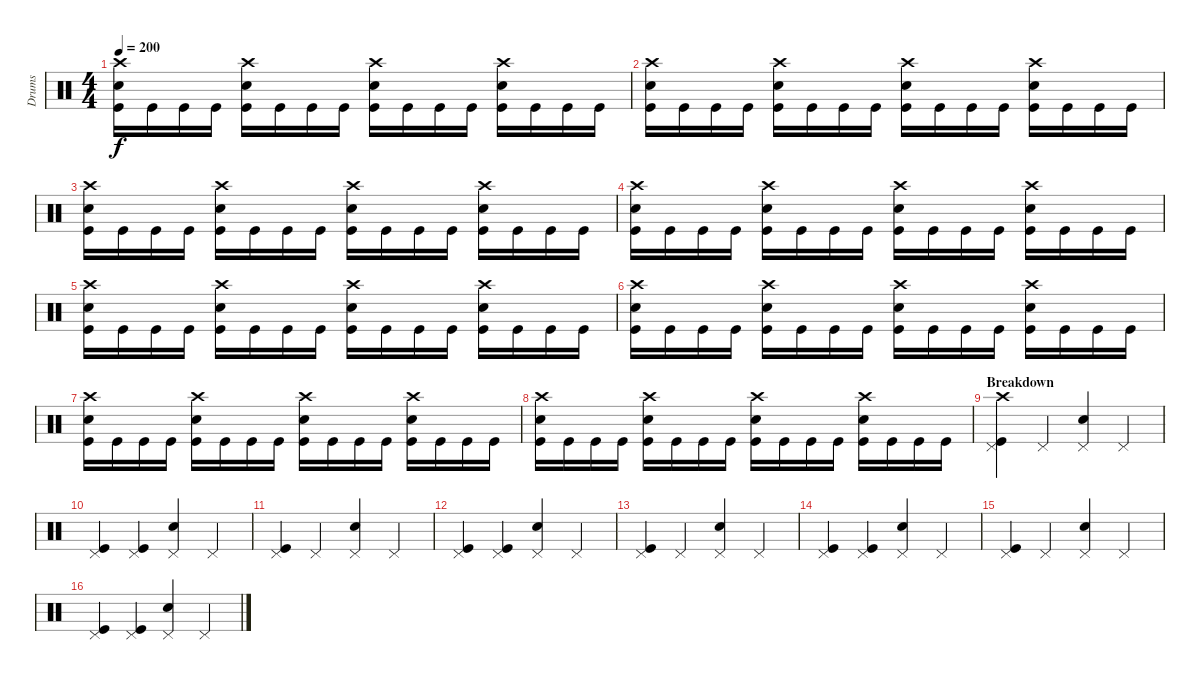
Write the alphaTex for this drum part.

\track ("Drums" "Drums") {instrument percussion}
\staff {score}
\articulation defaults
\ts (4 4)
\tempo 200
\clef neutral
\ks c
("Crash high (hit)" "Snare (hit) 2" "Kick (hit)").16{dy f} "Kick (hit)".16 "Kick (hit)".16 "Kick (hit)".16 ("Crash high (hit)" "Snare (hit) 2" "Kick (hit)").16 "Kick (hit)".16 "Kick (hit)".16 "Kick (hit)".16 ("Crash high (hit)" "Snare (hit) 2" "Kick (hit)").16 "Kick (hit)".16 "Kick (hit)".16 "Kick (hit)".16 ("Crash high (hit)" "Snare (hit) 2" "Kick (hit)").16 "Kick (hit)".16 "Kick (hit)".16 "Kick (hit)".16 |
("Crash high (hit)" "Snare (hit) 2" "Kick (hit)").16 "Kick (hit)".16 "Kick (hit)".16 "Kick (hit)".16 ("Crash high (hit)" "Snare (hit) 2" "Kick (hit)").16 "Kick (hit)".16 "Kick (hit)".16 "Kick (hit)".16 ("Crash high (hit)" "Snare (hit) 2" "Kick (hit)").16 "Kick (hit)".16 "Kick (hit)".16 "Kick (hit)".16 ("Crash high (hit)" "Snare (hit) 2" "Kick (hit)").16 "Kick (hit)".16 "Kick (hit)".16 "Kick (hit)".16 |
("Crash high (hit)" "Snare (hit) 2" "Kick (hit)").16 "Kick (hit)".16 "Kick (hit)".16 "Kick (hit)".16 ("Crash high (hit)" "Snare (hit) 2" "Kick (hit)").16 "Kick (hit)".16 "Kick (hit)".16 "Kick (hit)".16 ("Crash high (hit)" "Snare (hit) 2" "Kick (hit)").16 "Kick (hit)".16 "Kick (hit)".16 "Kick (hit)".16 ("Crash high (hit)" "Snare (hit) 2" "Kick (hit)").16 "Kick (hit)".16 "Kick (hit)".16 "Kick (hit)".16 |
("Crash high (hit)" "Snare (hit) 2" "Kick (hit)").16 "Kick (hit)".16 "Kick (hit)".16 "Kick (hit)".16 ("Crash high (hit)" "Snare (hit) 2" "Kick (hit)").16 "Kick (hit)".16 "Kick (hit)".16 "Kick (hit)".16 ("Crash high (hit)" "Snare (hit) 2" "Kick (hit)").16 "Kick (hit)".16 "Kick (hit)".16 "Kick (hit)".16 ("Crash high (hit)" "Snare (hit) 2" "Kick (hit)").16 "Kick (hit)".16 "Kick (hit)".16 "Kick (hit)".16 |
("Crash high (hit)" "Snare (hit) 2" "Kick (hit)").16 "Kick (hit)".16 "Kick (hit)".16 "Kick (hit)".16 ("Crash high (hit)" "Snare (hit) 2" "Kick (hit)").16 "Kick (hit)".16 "Kick (hit)".16 "Kick (hit)".16 ("Crash high (hit)" "Snare (hit) 2" "Kick (hit)").16 "Kick (hit)".16 "Kick (hit)".16 "Kick (hit)".16 ("Crash high (hit)" "Snare (hit) 2" "Kick (hit)").16 "Kick (hit)".16 "Kick (hit)".16 "Kick (hit)".16 |
("Crash high (hit)" "Snare (hit) 2" "Kick (hit)").16 "Kick (hit)".16 "Kick (hit)".16 "Kick (hit)".16 ("Crash high (hit)" "Snare (hit) 2" "Kick (hit)").16 "Kick (hit)".16 "Kick (hit)".16 "Kick (hit)".16 ("Crash high (hit)" "Snare (hit) 2" "Kick (hit)").16 "Kick (hit)".16 "Kick (hit)".16 "Kick (hit)".16 ("Crash high (hit)" "Snare (hit) 2" "Kick (hit)").16 "Kick (hit)".16 "Kick (hit)".16 "Kick (hit)".16 |
("Crash high (hit)" "Snare (hit) 2" "Kick (hit)").16 "Kick (hit)".16 "Kick (hit)".16 "Kick (hit)".16 ("Crash high (hit)" "Snare (hit) 2" "Kick (hit)").16 "Kick (hit)".16 "Kick (hit)".16 "Kick (hit)".16 ("Crash high (hit)" "Snare (hit) 2" "Kick (hit)").16 "Kick (hit)".16 "Kick (hit)".16 "Kick (hit)".16 ("Crash high (hit)" "Snare (hit) 2" "Kick (hit)").16 "Kick (hit)".16 "Kick (hit)".16 "Kick (hit)".16 |
("Crash high (hit)" "Snare (hit) 2" "Kick (hit)").16 "Kick (hit)".16 "Kick (hit)".16 "Kick (hit)".16 ("Crash high (hit)" "Snare (hit) 2" "Kick (hit)").16 "Kick (hit)".16 "Kick (hit)".16 "Kick (hit)".16 ("Crash high (hit)" "Snare (hit) 2" "Kick (hit)").16 "Kick (hit)".16 "Kick (hit)".16 "Kick (hit)".16 ("Crash high (hit)" "Snare (hit) 2" "Kick (hit)").16 "Kick (hit)".16 "Kick (hit)".16 "Kick (hit)".16 |
\section ("" "Breakdown")
("Crash high (hit)" "Pedal Hi-Hat (hit)" "Kick (hit)").4 "Pedal Hi-Hat (hit)".4 ("Snare (hit) 2" "Pedal Hi-Hat (hit)").4 "Pedal Hi-Hat (hit)".4 |
("Pedal Hi-Hat (hit)" "Kick (hit)").4 ("Pedal Hi-Hat (hit)" "Kick (hit)").4 ("Snare (hit) 2" "Pedal Hi-Hat (hit)").4 "Pedal Hi-Hat (hit)".4 |
("Pedal Hi-Hat (hit)" "Kick (hit)").4 "Pedal Hi-Hat (hit)".4 ("Snare (hit) 2" "Pedal Hi-Hat (hit)").4 "Pedal Hi-Hat (hit)".4 |
("Pedal Hi-Hat (hit)" "Kick (hit)").4 ("Pedal Hi-Hat (hit)" "Kick (hit)").4 ("Snare (hit) 2" "Pedal Hi-Hat (hit)").4 "Pedal Hi-Hat (hit)".4 |
("Pedal Hi-Hat (hit)" "Kick (hit)").4 "Pedal Hi-Hat (hit)".4 ("Snare (hit) 2" "Pedal Hi-Hat (hit)").4 "Pedal Hi-Hat (hit)".4 |
("Pedal Hi-Hat (hit)" "Kick (hit)").4 ("Pedal Hi-Hat (hit)" "Kick (hit)").4 ("Snare (hit) 2" "Pedal Hi-Hat (hit)").4 "Pedal Hi-Hat (hit)".4 |
("Pedal Hi-Hat (hit)" "Kick (hit)").4 "Pedal Hi-Hat (hit)".4 ("Snare (hit) 2" "Pedal Hi-Hat (hit)").4 "Pedal Hi-Hat (hit)".4 |
("Pedal Hi-Hat (hit)" "Kick (hit)").4 ("Pedal Hi-Hat (hit)" "Kick (hit)").4 ("Snare (hit) 2" "Pedal Hi-Hat (hit)").4 "Pedal Hi-Hat (hit)".4
